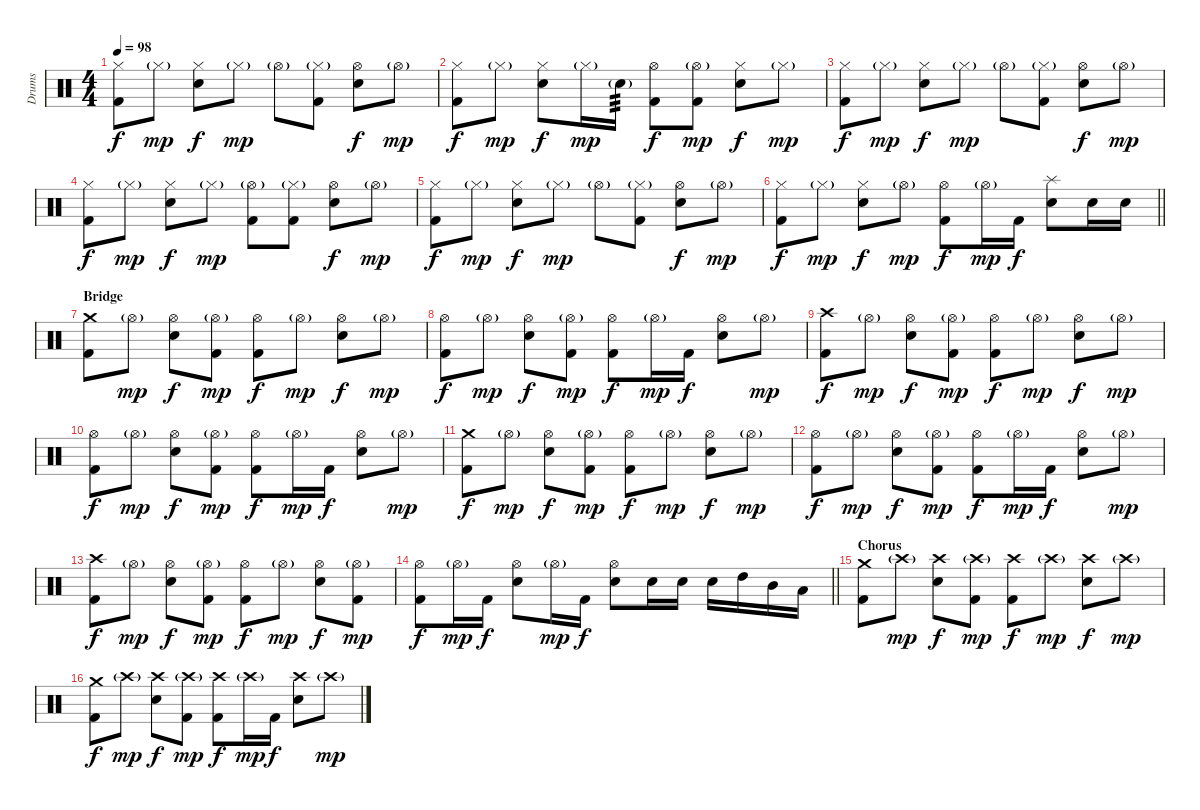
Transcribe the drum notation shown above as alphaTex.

\track ("Drums " "Drums ") {instrument percussion bank 32}
\staff {score}
\articulation defaults
\ts (4 4)
\tempo 98
\clef neutral
\ks c
("Hi-Hat (closed)" "Kick (hit) 2").8{dy f} "Hi-Hat (closed)"{g}.8{dy mp} ("Hi-Hat (closed)" "Electric Snare (hit)").8{dy f} "Hi-Hat (closed)"{g}.8{dy mp} "Hi-Hat (open)"{g}.8 ("Hi-Hat (closed)"{g} "Kick (hit) 2").8 ("Hi-Hat (open)" "Electric Snare (hit)").8{dy f} "Hi-Hat (open)"{g}.8{dy mp} |
("Hi-Hat (closed)" "Kick (hit) 2").8{dy f} "Hi-Hat (closed)"{g}.8{dy mp} ("Hi-Hat (closed)" "Electric Snare (hit)").8{dy f} "Hi-Hat (closed)"{g}.16{dy mp} "Electric Snare (hit)"{g}.16{tp 3} ("Hi-Hat (open)" "Kick (hit) 2").8{dy f} ("Hi-Hat (open)"{g} "Kick (hit) 2").8{dy mp} ("Hi-Hat (closed)" "Electric Snare (hit)").8{dy f} "Hi-Hat (closed)"{g}.8{dy mp} |
("Hi-Hat (closed)" "Kick (hit) 2").8{dy f} "Hi-Hat (closed)"{g}.8{dy mp} ("Hi-Hat (closed)" "Electric Snare (hit)").8{dy f} "Hi-Hat (closed)"{g}.8{dy mp} "Hi-Hat (open)"{g}.8 ("Hi-Hat (closed)"{g} "Kick (hit) 2").8 ("Hi-Hat (open)" "Electric Snare (hit)").8{dy f} "Hi-Hat (open)"{g}.8{dy mp} |
("Hi-Hat (closed)" "Kick (hit) 2").8{dy f} "Hi-Hat (closed)"{g}.8{dy mp} ("Hi-Hat (closed)" "Electric Snare (hit)").8{dy f} "Hi-Hat (closed)"{g}.8{dy mp} ("Hi-Hat (open)"{g} "Kick (hit) 2").8 ("Hi-Hat (closed)"{g} "Kick (hit) 2").8 ("Hi-Hat (open)" "Electric Snare (hit)").8{dy f} "Hi-Hat (open)"{g}.8{dy mp} |
("Hi-Hat (closed)" "Kick (hit) 2").8{dy f} "Hi-Hat (closed)"{g}.8{dy mp} ("Hi-Hat (closed)" "Electric Snare (hit)").8{dy f} "Hi-Hat (closed)"{g}.8{dy mp} "Hi-Hat (open)"{g}.8 ("Hi-Hat (closed)"{g} "Kick (hit) 2").8 ("Hi-Hat (open)" "Electric Snare (hit)").8{dy f} "Hi-Hat (open)"{g}.8{dy mp} |
\barLineRight lightlight
("Hi-Hat (closed)" "Kick (hit) 2").8{dy f} "Hi-Hat (closed)"{g}.8{dy mp} ("Hi-Hat (closed)" "Electric Snare (hit)").8{dy f} "Hi-Hat (open)"{g}.8{dy mp} ("Hi-Hat (open)" "Kick (hit) 2").8{dy f} "Hi-Hat (open)"{g}.16{dy mp} "Kick (hit) 2".16{dy f} ("Splash (hit)" "Electric Snare (hit)").8 "Electric Snare (hit)".16 "Electric Snare (hit)".16 |
\section ("" "Bridge")
("Crash medium (hit)" "Kick (hit) 2").8 "Hi-Hat (open)"{g}.8{dy mp} ("Hi-Hat (open)" "Electric Snare (hit)").8{dy f} ("Hi-Hat (open)"{g} "Kick (hit) 2").8{dy mp} ("Hi-Hat (open)" "Kick (hit) 2").8{dy f} "Hi-Hat (open)"{g}.8{dy mp} ("Hi-Hat (open)" "Electric Snare (hit)").8{dy f} "Hi-Hat (open)"{g}.8{dy mp} |
("Hi-Hat (open)" "Kick (hit) 2").8{dy f} "Hi-Hat (open)"{g}.8{dy mp} ("Hi-Hat (open)" "Electric Snare (hit)").8{dy f} ("Hi-Hat (open)"{g} "Kick (hit) 2").8{dy mp} ("Hi-Hat (open)" "Kick (hit) 2").8{dy f} "Hi-Hat (open)"{g}.16{dy mp} "Kick (hit) 2".16{dy f} ("Hi-Hat (open)" "Electric Snare (hit)").8 "Hi-Hat (open)"{g}.8{dy mp} |
("Crash high (hit)" "Kick (hit) 2").8{dy f} "Hi-Hat (open)"{g}.8{dy mp} ("Hi-Hat (open)" "Electric Snare (hit)").8{dy f} ("Hi-Hat (open)"{g} "Kick (hit) 2").8{dy mp} ("Hi-Hat (open)" "Kick (hit) 2").8{dy f} "Hi-Hat (open)"{g}.8{dy mp} ("Hi-Hat (open)" "Electric Snare (hit)").8{dy f} "Hi-Hat (open)"{g}.8{dy mp} |
("Hi-Hat (open)" "Kick (hit) 2").8{dy f} "Hi-Hat (open)"{g}.8{dy mp} ("Hi-Hat (open)" "Electric Snare (hit)").8{dy f} ("Hi-Hat (open)"{g} "Kick (hit) 2").8{dy mp} ("Hi-Hat (open)" "Kick (hit) 2").8{dy f} "Hi-Hat (open)"{g}.16{dy mp} "Kick (hit) 2".16{dy f} ("Hi-Hat (open)" "Electric Snare (hit)").8 "Hi-Hat (open)"{g}.8{dy mp} |
("Crash medium (hit)" "Kick (hit) 2").8{dy f} "Hi-Hat (open)"{g}.8{dy mp} ("Hi-Hat (open)" "Electric Snare (hit)").8{dy f} ("Hi-Hat (open)"{g} "Kick (hit) 2").8{dy mp} ("Hi-Hat (open)" "Kick (hit) 2").8{dy f} "Hi-Hat (open)"{g}.8{dy mp} ("Hi-Hat (open)" "Electric Snare (hit)").8{dy f} "Hi-Hat (open)"{g}.8{dy mp} |
("Hi-Hat (open)" "Kick (hit) 2").8{dy f} "Hi-Hat (open)"{g}.8{dy mp} ("Hi-Hat (open)" "Electric Snare (hit)").8{dy f} ("Hi-Hat (open)"{g} "Kick (hit) 2").8{dy mp} ("Hi-Hat (open)" "Kick (hit) 2").8{dy f} "Hi-Hat (open)"{g}.16{dy mp} "Kick (hit) 2".16{dy f} ("Hi-Hat (open)" "Electric Snare (hit)").8 "Hi-Hat (open)"{g}.8{dy mp} |
("Crash high (hit)" "Kick (hit) 2").8{dy f} "Hi-Hat (open)"{g}.8{dy mp} ("Hi-Hat (open)" "Electric Snare (hit)").8{dy f} ("Hi-Hat (open)"{g} "Kick (hit) 2").8{dy mp} ("Hi-Hat (open)" "Kick (hit) 2").8{dy f} "Hi-Hat (open)"{g}.8{dy mp} ("Hi-Hat (open)" "Electric Snare (hit)").8{dy f} ("Hi-Hat (open)"{g} "Kick (hit) 2").8{dy mp} |
\barLineRight lightlight
("Hi-Hat (open)" "Kick (hit) 2").8{dy f} "Hi-Hat (open)"{g}.16{dy mp} "Kick (hit) 2".16{dy f} ("Hi-Hat (open)" "Electric Snare (hit)").8 "Hi-Hat (open)"{g}.16{dy mp} "Kick (hit) 2".16{dy f} ("Hi-Hat (open)" "Electric Snare (hit)").8 "Electric Snare (hit)".16 "Electric Snare (hit)".16 "Electric Snare (hit)".16 "High Tom (hit)".16 "Mid Tom (hit)".16 "Low Tom (hit)".16 |
\section ("" "Chorus")
("Crash medium (hit)" "Kick (hit) 2").8 "Crash high (hit)"{g}.8{dy mp} ("Crash high (hit)" "Electric Snare (hit)").8{dy f} ("Crash high (hit)"{g} "Kick (hit) 2").8{dy mp} ("Crash high (hit)" "Kick (hit) 2").8{dy f} "Crash high (hit)"{g}.8{dy mp} ("Crash high (hit)" "Electric Snare (hit)").8{dy f} "Crash high (hit)"{g}.8{dy mp} |
("Crash medium (hit)" "Kick (hit) 2").8{dy f} "Crash high (hit)"{g}.8{dy mp} ("Crash high (hit)" "Electric Snare (hit)").8{dy f} ("Crash high (hit)"{g} "Kick (hit) 2").8{dy mp} ("Crash high (hit)" "Kick (hit) 2").8{dy f} "Crash high (hit)"{g}.16{dy mp} "Kick (hit) 2".16{dy f} ("Crash high (hit)" "Electric Snare (hit)").8 "Crash high (hit)"{g}.8{dy mp}
